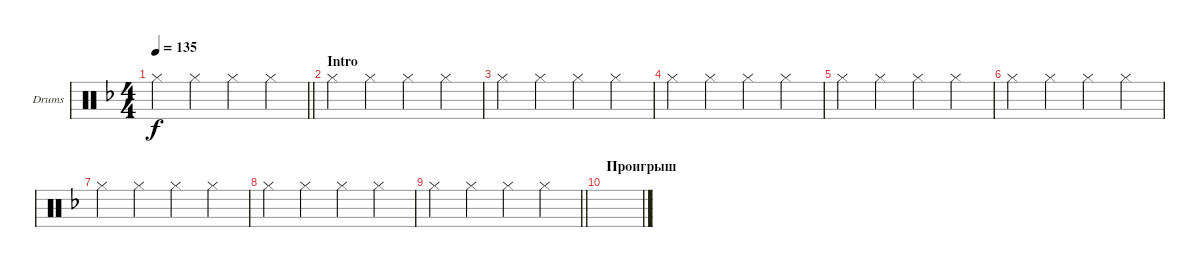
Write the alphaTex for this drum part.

\bracketExtendMode groupsimilarinstruments
\firstSystemTrackNameOrientation horizontal
\otherSystemsTrackNameOrientation horizontal
\track ("Drumkit" "Drums") {instrument percussion}
\staff {score}
\articulation defaults
\ts (4 4)
\beaming (8 2 2 2 2)
\tempo 135
\clef neutral
\barLineRight lightlight
\ks dminor "Hi-Hat (closed)".4{dy f} "Hi-Hat (closed)".4 "Hi-Hat (closed)".4 "Hi-Hat (closed)".4
|
\section ("" "Intro")
"Hi-Hat (closed)".4 "Hi-Hat (closed)".4 "Hi-Hat (closed)".4 "Hi-Hat (closed)".4 |
"Hi-Hat (closed)".4 "Hi-Hat (closed)".4 "Hi-Hat (closed)".4 "Hi-Hat (closed)".4 |
"Hi-Hat (closed)".4 "Hi-Hat (closed)".4 "Hi-Hat (closed)".4 "Hi-Hat (closed)".4 |
"Hi-Hat (closed)".4 "Hi-Hat (closed)".4 "Hi-Hat (closed)".4 "Hi-Hat (closed)".4 |
"Hi-Hat (closed)".4 "Hi-Hat (closed)".4 "Hi-Hat (closed)".4 "Hi-Hat (closed)".4 |
"Hi-Hat (closed)".4 "Hi-Hat (closed)".4 "Hi-Hat (closed)".4 "Hi-Hat (closed)".4 |
"Hi-Hat (closed)".4 "Hi-Hat (closed)".4 "Hi-Hat (closed)".4 "Hi-Hat (closed)".4 |
\barLineRight lightlight "Hi-Hat (closed)".4 "Hi-Hat (closed)".4 "Hi-Hat (closed)".4 "Hi-Hat (closed)".4
|
\section ("" "Проигрыш")
